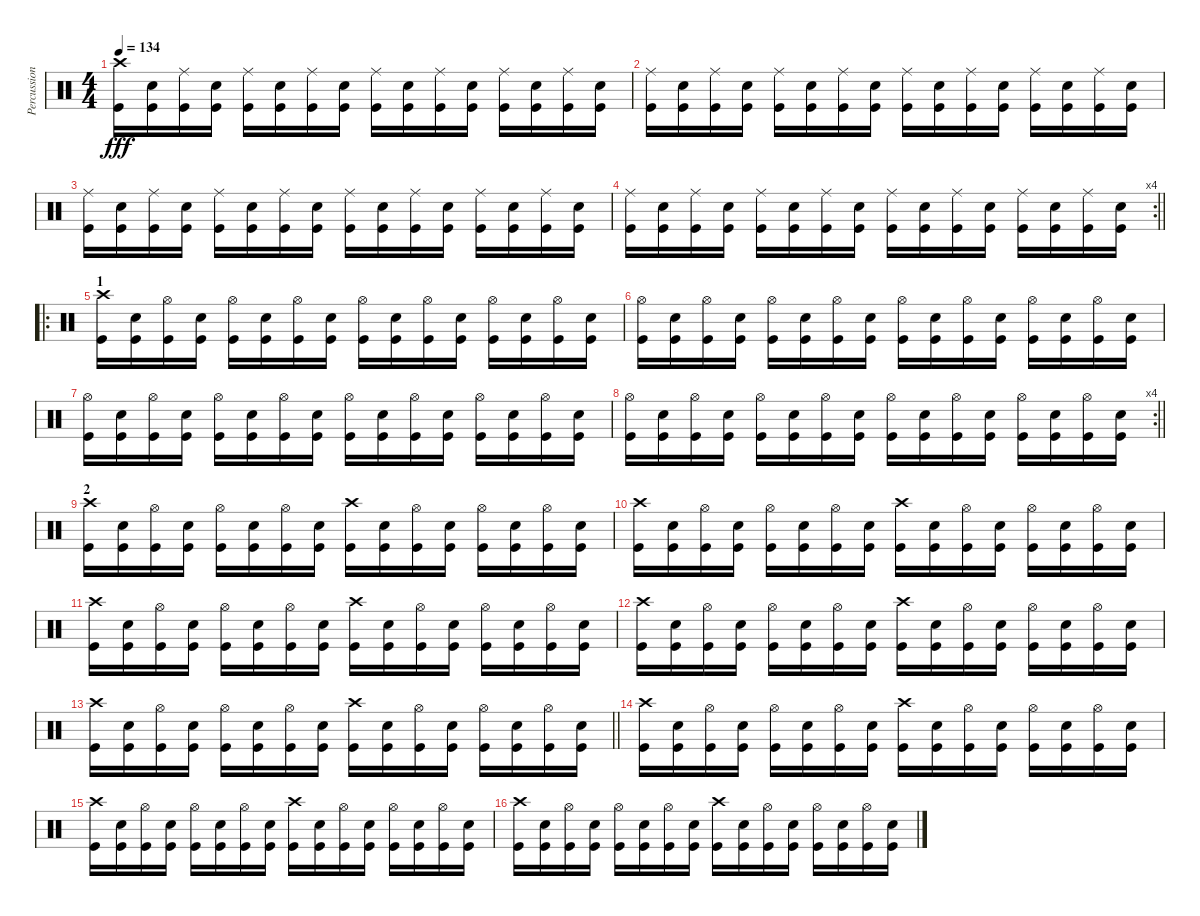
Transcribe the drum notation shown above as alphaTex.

\track ("Percussion" "Percussion") {instrument percussion}
\staff {score}
\articulation defaults
\ts (4 4)
\tempo 134
\clef neutral
\ks c
("Crash high (hit)" "Kick (hit)").16{dy fff} ("Snare (hit) 2" "Kick (hit)").16 ("Ride (middle)" "Kick (hit)").16 ("Snare (hit) 2" "Kick (hit)").16 ("Ride (middle)" "Kick (hit)").16 ("Snare (hit) 2" "Kick (hit)").16 ("Ride (middle)" "Kick (hit)").16 ("Snare (hit) 2" "Kick (hit)").16 ("Ride (middle)" "Kick (hit)").16 ("Snare (hit) 2" "Kick (hit)").16 ("Ride (middle)" "Kick (hit)").16 ("Snare (hit) 2" "Kick (hit)").16 ("Ride (middle)" "Kick (hit)").16 ("Snare (hit) 2" "Kick (hit)").16 ("Ride (middle)" "Kick (hit)").16 ("Snare (hit) 2" "Kick (hit)").16 |
("Ride (middle)" "Kick (hit)").16 ("Snare (hit) 2" "Kick (hit)").16 ("Ride (middle)" "Kick (hit)").16 ("Snare (hit) 2" "Kick (hit)").16 ("Ride (middle)" "Kick (hit)").16 ("Snare (hit) 2" "Kick (hit)").16 ("Ride (middle)" "Kick (hit)").16 ("Snare (hit) 2" "Kick (hit)").16 ("Ride (middle)" "Kick (hit)").16 ("Snare (hit) 2" "Kick (hit)").16 ("Ride (middle)" "Kick (hit)").16 ("Snare (hit) 2" "Kick (hit)").16 ("Ride (middle)" "Kick (hit)").16 ("Snare (hit) 2" "Kick (hit)").16 ("Ride (middle)" "Kick (hit)").16 ("Snare (hit) 2" "Kick (hit)").16 |
("Ride (middle)" "Kick (hit)").16 ("Snare (hit) 2" "Kick (hit)").16 ("Ride (middle)" "Kick (hit)").16 ("Snare (hit) 2" "Kick (hit)").16 ("Ride (middle)" "Kick (hit)").16 ("Snare (hit) 2" "Kick (hit)").16 ("Ride (middle)" "Kick (hit)").16 ("Snare (hit) 2" "Kick (hit)").16 ("Ride (middle)" "Kick (hit)").16 ("Snare (hit) 2" "Kick (hit)").16 ("Ride (middle)" "Kick (hit)").16 ("Snare (hit) 2" "Kick (hit)").16 ("Ride (middle)" "Kick (hit)").16 ("Snare (hit) 2" "Kick (hit)").16 ("Ride (middle)" "Kick (hit)").16 ("Snare (hit) 2" "Kick (hit)").16 |
\rc 4
\barLineRight lightlight
("Ride (middle)" "Kick (hit)").16 ("Snare (hit) 2" "Kick (hit)").16 ("Ride (middle)" "Kick (hit)").16 ("Snare (hit) 2" "Kick (hit)").16 ("Ride (middle)" "Kick (hit)").16 ("Snare (hit) 2" "Kick (hit)").16 ("Ride (middle)" "Kick (hit)").16 ("Snare (hit) 2" "Kick (hit)").16 ("Ride (middle)" "Kick (hit)").16 ("Snare (hit) 2" "Kick (hit)").16 ("Ride (middle)" "Kick (hit)").16 ("Snare (hit) 2" "Kick (hit)").16 ("Ride (middle)" "Kick (hit)").16 ("Snare (hit) 2" "Kick (hit)").16 ("Ride (middle)" "Kick (hit)").16 ("Snare (hit) 2" "Kick (hit)").16 |
\ro
\section ("" "1")
("Crash high (hit)" "Kick (hit)").16 ("Snare (hit) 2" "Kick (hit)").16 ("Hi-Hat (open)" "Kick (hit)").16 ("Snare (hit) 2" "Kick (hit)").16 ("Hi-Hat (open)" "Kick (hit)").16 ("Snare (hit) 2" "Kick (hit)").16 ("Hi-Hat (open)" "Kick (hit)").16 ("Snare (hit) 2" "Kick (hit)").16 ("Hi-Hat (open)" "Kick (hit)").16 ("Snare (hit) 2" "Kick (hit)").16 ("Hi-Hat (open)" "Kick (hit)").16 ("Snare (hit) 2" "Kick (hit)").16 ("Hi-Hat (open)" "Kick (hit)").16 ("Snare (hit) 2" "Kick (hit)").16 ("Hi-Hat (open)" "Kick (hit)").16 ("Snare (hit) 2" "Kick (hit)").16 |
("Hi-Hat (open)" "Kick (hit)").16 ("Snare (hit) 2" "Kick (hit)").16 ("Hi-Hat (open)" "Kick (hit)").16 ("Snare (hit) 2" "Kick (hit)").16 ("Hi-Hat (open)" "Kick (hit)").16 ("Snare (hit) 2" "Kick (hit)").16 ("Hi-Hat (open)" "Kick (hit)").16 ("Snare (hit) 2" "Kick (hit)").16 ("Hi-Hat (open)" "Kick (hit)").16 ("Snare (hit) 2" "Kick (hit)").16 ("Hi-Hat (open)" "Kick (hit)").16 ("Snare (hit) 2" "Kick (hit)").16 ("Hi-Hat (open)" "Kick (hit)").16 ("Snare (hit) 2" "Kick (hit)").16 ("Hi-Hat (open)" "Kick (hit)").16 ("Snare (hit) 2" "Kick (hit)").16 |
("Hi-Hat (open)" "Kick (hit)").16 ("Snare (hit) 2" "Kick (hit)").16 ("Hi-Hat (open)" "Kick (hit)").16 ("Snare (hit) 2" "Kick (hit)").16 ("Hi-Hat (open)" "Kick (hit)").16 ("Snare (hit) 2" "Kick (hit)").16 ("Hi-Hat (open)" "Kick (hit)").16 ("Snare (hit) 2" "Kick (hit)").16 ("Hi-Hat (open)" "Kick (hit)").16 ("Snare (hit) 2" "Kick (hit)").16 ("Hi-Hat (open)" "Kick (hit)").16 ("Snare (hit) 2" "Kick (hit)").16 ("Hi-Hat (open)" "Kick (hit)").16 ("Snare (hit) 2" "Kick (hit)").16 ("Hi-Hat (open)" "Kick (hit)").16 ("Snare (hit) 2" "Kick (hit)").16 |
\rc 4
\barLineRight lightlight
("Hi-Hat (open)" "Kick (hit)").16 ("Snare (hit) 2" "Kick (hit)").16 ("Hi-Hat (open)" "Kick (hit)").16 ("Snare (hit) 2" "Kick (hit)").16 ("Hi-Hat (open)" "Kick (hit)").16 ("Snare (hit) 2" "Kick (hit)").16 ("Hi-Hat (open)" "Kick (hit)").16 ("Snare (hit) 2" "Kick (hit)").16 ("Hi-Hat (open)" "Kick (hit)").16 ("Snare (hit) 2" "Kick (hit)").16 ("Hi-Hat (open)" "Kick (hit)").16 ("Snare (hit) 2" "Kick (hit)").16 ("Hi-Hat (open)" "Kick (hit)").16 ("Snare (hit) 2" "Kick (hit)").16 ("Hi-Hat (open)" "Kick (hit)").16 ("Snare (hit) 2" "Kick (hit)").16 |
\section ("" "2")
("Crash high (hit)" "Kick (hit)").16 ("Snare (hit) 2" "Kick (hit)").16 ("Hi-Hat (open)" "Kick (hit)").16 ("Snare (hit) 2" "Kick (hit)").16 ("Hi-Hat (open)" "Kick (hit)").16 ("Snare (hit) 2" "Kick (hit)").16 ("Hi-Hat (open)" "Kick (hit)").16 ("Snare (hit) 2" "Kick (hit)").16 ("Crash high (hit)" "Kick (hit)").16 ("Snare (hit) 2" "Kick (hit)").16 ("Hi-Hat (open)" "Kick (hit)").16 ("Snare (hit) 2" "Kick (hit)").16 ("Hi-Hat (open)" "Kick (hit)").16 ("Snare (hit) 2" "Kick (hit)").16 ("Hi-Hat (open)" "Kick (hit)").16 ("Snare (hit) 2" "Kick (hit)").16 |
("Crash high (hit)" "Kick (hit)").16 ("Snare (hit) 2" "Kick (hit)").16 ("Hi-Hat (open)" "Kick (hit)").16 ("Snare (hit) 2" "Kick (hit)").16 ("Hi-Hat (open)" "Kick (hit)").16 ("Snare (hit) 2" "Kick (hit)").16 ("Hi-Hat (open)" "Kick (hit)").16 ("Snare (hit) 2" "Kick (hit)").16 ("Crash high (hit)" "Kick (hit)").16 ("Snare (hit) 2" "Kick (hit)").16 ("Hi-Hat (open)" "Kick (hit)").16 ("Snare (hit) 2" "Kick (hit)").16 ("Hi-Hat (open)" "Kick (hit)").16 ("Snare (hit) 2" "Kick (hit)").16 ("Hi-Hat (open)" "Kick (hit)").16 ("Snare (hit) 2" "Kick (hit)").16 |
("Crash high (hit)" "Kick (hit)").16 ("Snare (hit) 2" "Kick (hit)").16 ("Hi-Hat (open)" "Kick (hit)").16 ("Snare (hit) 2" "Kick (hit)").16 ("Hi-Hat (open)" "Kick (hit)").16 ("Snare (hit) 2" "Kick (hit)").16 ("Hi-Hat (open)" "Kick (hit)").16 ("Snare (hit) 2" "Kick (hit)").16 ("Crash high (hit)" "Kick (hit)").16 ("Snare (hit) 2" "Kick (hit)").16 ("Hi-Hat (open)" "Kick (hit)").16 ("Snare (hit) 2" "Kick (hit)").16 ("Hi-Hat (open)" "Kick (hit)").16 ("Snare (hit) 2" "Kick (hit)").16 ("Hi-Hat (open)" "Kick (hit)").16 ("Snare (hit) 2" "Kick (hit)").16 |
("Crash high (hit)" "Kick (hit)").16 ("Snare (hit) 2" "Kick (hit)").16 ("Hi-Hat (open)" "Kick (hit)").16 ("Snare (hit) 2" "Kick (hit)").16 ("Hi-Hat (open)" "Kick (hit)").16 ("Snare (hit) 2" "Kick (hit)").16 ("Hi-Hat (open)" "Kick (hit)").16 ("Snare (hit) 2" "Kick (hit)").16 ("Crash high (hit)" "Kick (hit)").16 ("Snare (hit) 2" "Kick (hit)").16 ("Hi-Hat (open)" "Kick (hit)").16 ("Snare (hit) 2" "Kick (hit)").16 ("Hi-Hat (open)" "Kick (hit)").16 ("Snare (hit) 2" "Kick (hit)").16 ("Hi-Hat (open)" "Kick (hit)").16 ("Snare (hit) 2" "Kick (hit)").16 |
\barLineRight lightlight
("Crash high (hit)" "Kick (hit)").16 ("Snare (hit) 2" "Kick (hit)").16 ("Hi-Hat (open)" "Kick (hit)").16 ("Snare (hit) 2" "Kick (hit)").16 ("Hi-Hat (open)" "Kick (hit)").16 ("Snare (hit) 2" "Kick (hit)").16 ("Hi-Hat (open)" "Kick (hit)").16 ("Snare (hit) 2" "Kick (hit)").16 ("Crash high (hit)" "Kick (hit)").16 ("Snare (hit) 2" "Kick (hit)").16 ("Hi-Hat (open)" "Kick (hit)").16 ("Snare (hit) 2" "Kick (hit)").16 ("Hi-Hat (open)" "Kick (hit)").16 ("Snare (hit) 2" "Kick (hit)").16 ("Hi-Hat (open)" "Kick (hit)").16 ("Snare (hit) 2" "Kick (hit)").16 |
\section ("" "")
("Crash high (hit)" "Kick (hit)").16 ("Snare (hit) 2" "Kick (hit)").16 ("Hi-Hat (open)" "Kick (hit)").16 ("Snare (hit) 2" "Kick (hit)").16 ("Hi-Hat (open)" "Kick (hit)").16 ("Snare (hit) 2" "Kick (hit)").16 ("Hi-Hat (open)" "Kick (hit)").16 ("Snare (hit) 2" "Kick (hit)").16 ("Crash high (hit)" "Kick (hit)").16 ("Snare (hit) 2" "Kick (hit)").16 ("Hi-Hat (open)" "Kick (hit)").16 ("Snare (hit) 2" "Kick (hit)").16 ("Hi-Hat (open)" "Kick (hit)").16 ("Snare (hit) 2" "Kick (hit)").16 ("Hi-Hat (open)" "Kick (hit)").16 ("Snare (hit) 2" "Kick (hit)").16 |
("Crash high (hit)" "Kick (hit)").16 ("Snare (hit) 2" "Kick (hit)").16 ("Hi-Hat (open)" "Kick (hit)").16 ("Snare (hit) 2" "Kick (hit)").16 ("Hi-Hat (open)" "Kick (hit)").16 ("Snare (hit) 2" "Kick (hit)").16 ("Hi-Hat (open)" "Kick (hit)").16 ("Snare (hit) 2" "Kick (hit)").16 ("Crash high (hit)" "Kick (hit)").16 ("Snare (hit) 2" "Kick (hit)").16 ("Hi-Hat (open)" "Kick (hit)").16 ("Snare (hit) 2" "Kick (hit)").16 ("Hi-Hat (open)" "Kick (hit)").16 ("Snare (hit) 2" "Kick (hit)").16 ("Hi-Hat (open)" "Kick (hit)").16 ("Snare (hit) 2" "Kick (hit)").16 |
("Crash high (hit)" "Kick (hit)").16 ("Snare (hit) 2" "Kick (hit)").16 ("Hi-Hat (open)" "Kick (hit)").16 ("Snare (hit) 2" "Kick (hit)").16 ("Hi-Hat (open)" "Kick (hit)").16 ("Snare (hit) 2" "Kick (hit)").16 ("Hi-Hat (open)" "Kick (hit)").16 ("Snare (hit) 2" "Kick (hit)").16 ("Crash high (hit)" "Kick (hit)").16 ("Snare (hit) 2" "Kick (hit)").16 ("Hi-Hat (open)" "Kick (hit)").16 ("Snare (hit) 2" "Kick (hit)").16 ("Hi-Hat (open)" "Kick (hit)").16 ("Snare (hit) 2" "Kick (hit)").16 ("Hi-Hat (open)" "Kick (hit)").16 ("Snare (hit) 2" "Kick (hit)").16
